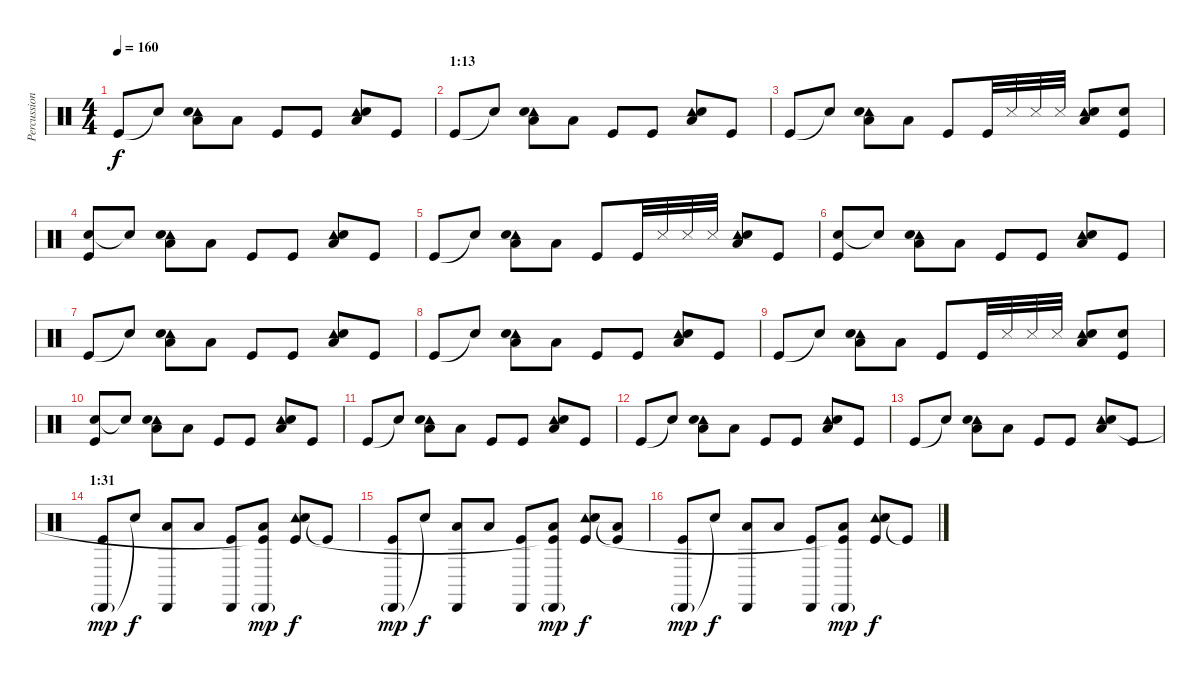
\track ("Percussion" "Percussion") {instrument percussion}
\staff {score}
\articulation defaults
\ts (4 4)
\tempo 160
\clef neutral
\ks c "Kick (hit)".8{dy f} "Snare (hit)"{t}.8
("Tambourine (hit)" "Hand Clap (hit)" "Low Tom (hit)").8 "Low Tom (hit)".8 "Kick (hit)".8 "Kick (hit)".8 ("Tambourine (hit)" "Hand Clap (hit)" "Low Tom (hit)").8 "Kick (hit)".8 |
\section ("" "1:13")
"Kick (hit)".8 "Snare (hit)"{t}.8 ("Tambourine (hit)" "Hand Clap (hit)" "Low Tom (hit)").8 "Low Tom (hit)".8 "Kick (hit)".8 "Kick (hit)".8 ("Tambourine (hit)" "Hand Clap (hit)" "Low Tom (hit)").8 "Kick (hit)".8 |
"Kick (hit)".8 "Snare (hit)"{t}.8 ("Tambourine (hit)" "Hand Clap (hit)" "Low Tom (hit)").8 "Low Tom (hit)".8 "Kick (hit)".8 "Kick (hit)".32 "Snare (side stick) 3".32 "Snare (side stick) 3".32 "Snare (side stick) 3".32 ("Tambourine (hit)" "Hand Clap (hit)" "Low Tom (hit)").8 ("Hand Clap (hit)" "Kick (hit)").8 |
("Hand Clap (hit)" "Kick (hit)").8 "Snare (hit)"{t}.8 ("Tambourine (hit)" "Hand Clap (hit)" "Low Tom (hit)").8 "Low Tom (hit)".8 "Kick (hit)".8 "Kick (hit)".8 ("Tambourine (hit)" "Hand Clap (hit)" "Low Tom (hit)").8 "Kick (hit)".8 |
"Kick (hit)".8 "Snare (hit)"{t}.8 ("Tambourine (hit)" "Hand Clap (hit)" "Low Tom (hit)").8 "Low Tom (hit)".8 "Kick (hit)".8 "Kick (hit)".32 "Snare (side stick) 3".32 "Snare (side stick) 3".32 "Snare (side stick) 3".32 ("Tambourine (hit)" "Hand Clap (hit)" "Low Tom (hit)").8 "Kick (hit)".8 |
("Hand Clap (hit)" "Kick (hit)").8 "Snare (hit)"{t}.8 ("Tambourine (hit)" "Hand Clap (hit)" "Low Tom (hit)").8 "Low Tom (hit)".8 "Kick (hit)".8 "Kick (hit)".8 ("Tambourine (hit)" "Hand Clap (hit)" "Low Tom (hit)").8 "Kick (hit)".8 |
"Kick (hit)".8 "Snare (hit)"{t}.8 ("Tambourine (hit)" "Hand Clap (hit)" "Low Tom (hit)").8 "Low Tom (hit)".8 "Kick (hit)".8 "Kick (hit)".8 ("Tambourine (hit)" "Hand Clap (hit)" "Low Tom (hit)").8 "Kick (hit)".8 |
"Kick (hit)".8 "Snare (hit)"{t}.8 ("Tambourine (hit)" "Hand Clap (hit)" "Low Tom (hit)").8 "Low Tom (hit)".8 "Kick (hit)".8 "Kick (hit)".8 ("Tambourine (hit)" "Hand Clap (hit)" "Low Tom (hit)").8 "Kick (hit)".8 |
"Kick (hit)".8 "Snare (hit)"{t}.8 ("Tambourine (hit)" "Hand Clap (hit)" "Low Tom (hit)").8 "Low Tom (hit)".8 "Kick (hit)".8 "Kick (hit)".32 "Snare (side stick) 3".32 "Snare (side stick) 3".32 "Snare (side stick) 3".32 ("Tambourine (hit)" "Hand Clap (hit)" "Low Tom (hit)").8 ("Hand Clap (hit)" "Kick (hit)").8 |
("Hand Clap (hit)" "Kick (hit)").8 "Snare (hit)"{t}.8 ("Tambourine (hit)" "Hand Clap (hit)" "Low Tom (hit)").8 "Low Tom (hit)".8 "Kick (hit)".8 "Kick (hit)".8 ("Tambourine (hit)" "Hand Clap (hit)" "Low Tom (hit)").8 "Kick (hit)".8 |
"Kick (hit)".8 "Snare (hit)"{t}.8 ("Tambourine (hit)" "Hand Clap (hit)" "Low Tom (hit)").8 "Low Tom (hit)".8 "Kick (hit)".8 "Kick (hit)".8 ("Tambourine (hit)" "Hand Clap (hit)" "Low Tom (hit)").8 "Kick (hit)".8 |
"Kick (hit)".8 "Snare (hit)"{t}.8 ("Tambourine (hit)" "Hand Clap (hit)" "Low Tom (hit)").8 "Low Tom (hit)".8 "Kick (hit)".8 "Kick (hit)".8 ("Tambourine (hit)" "Hand Clap (hit)" "Low Tom (hit)").8 "Kick (hit)".8 |
"Kick (hit)".8 "Snare (hit)"{t}.8 ("Tambourine (hit)" "Hand Clap (hit)" "Low Tom (hit)").8 "Low Tom (hit)".8 "Kick (hit)".8 "Kick (hit)".8 ("Tambourine (hit)" "Hand Clap (hit)" "Low Tom (hit)").8 "Kick (hit)".8 |
\section ("" "1:31")
("Cabasa (hit)"{g} "Kick (hit)").8{dy mp} "Snare (hit)"{t}.8{dy f} ("Cabasa (hit)" "Low Tom (hit)").8 "Low Tom (hit)".8 ("Cabasa (hit)" "Kick (hit)").8 ("Cabasa (hit)"{g} "Low Tom (hit)" "Kick (hit)"{t}).8{dy mp} ("Tambourine (hit)" "Hand Clap (hit)" "Kick (hit)").8{dy f} "Kick (hit)"{t}.8 |
("Cabasa (hit)"{g} "Kick (hit)").8{dy mp} "Snare (hit)"{t}.8{dy f} ("Cabasa (hit)" "Low Tom (hit)").8 "Low Tom (hit)".8 ("Cabasa (hit)" "Kick (hit)").8 ("Cabasa (hit)"{g} "Low Tom (hit)" "Kick (hit)"{t}).8{dy mp} ("Tambourine (hit)" "Hand Clap (hit)" "Kick (hit)").8{dy f} ("Low Tom (hit)" "Kick (hit)"{t}).8 |
("Cabasa (hit)"{g} "Kick (hit)").8{dy mp} "Snare (hit)"{t}.8{dy f} ("Cabasa (hit)" "Low Tom (hit)").8 "Low Tom (hit)".8 ("Cabasa (hit)" "Kick (hit)").8 ("Cabasa (hit)"{g} "Low Tom (hit)" "Kick (hit)"{t}).8{dy mp} ("Tambourine (hit)" "Hand Clap (hit)" "Kick (hit)").8{dy f} "Kick (hit)"{t}.8
